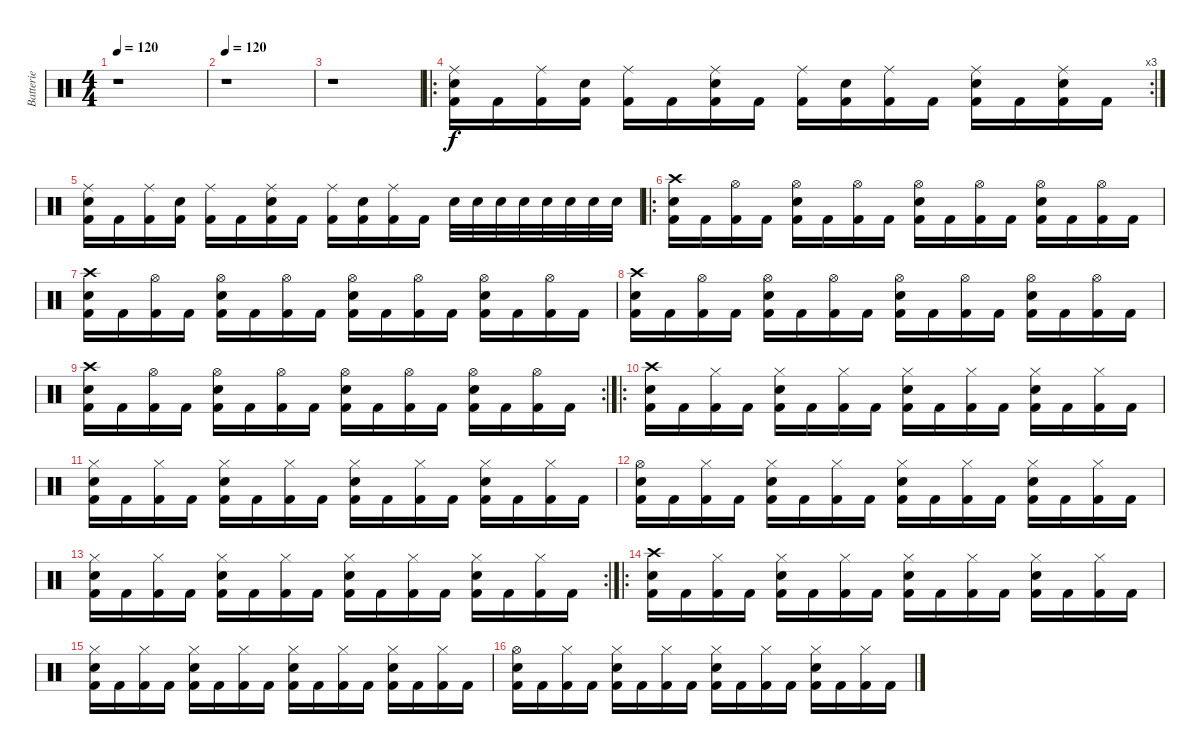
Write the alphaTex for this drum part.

\track ("Batterie" "Batterie") {instrument percussion}
\staff {score}
\articulation defaults
\ts (4 4)
\tempo 120
\clef neutral
\ks c
r.1{dy f} |
\tempo 120
r.1 |
r.1 |
\ro
\rc 3
("Ride (middle)" "Electric Snare (hit)" "Kick (hit) 2").16 "Kick (hit) 2".16 ("Ride (middle)" "Kick (hit) 2").16 ("Electric Snare (hit)" "Kick (hit) 2").16 ("Ride (middle)" "Kick (hit) 2").16 "Kick (hit) 2".16 ("Ride (middle)" "Electric Snare (hit)" "Kick (hit) 2").16 "Kick (hit) 2".16 ("Ride (middle)" "Kick (hit) 2").16 ("Electric Snare (hit)" "Kick (hit) 2").16 ("Ride (middle)" "Kick (hit) 2").16 "Kick (hit) 2".16 ("Ride (middle)" "Electric Snare (hit)" "Kick (hit) 2").16 "Kick (hit) 2".16 ("Ride (middle)" "Electric Snare (hit)" "Kick (hit) 2").16 "Kick (hit) 2".16 |
("Ride (middle)" "Electric Snare (hit)" "Kick (hit) 2").16 "Kick (hit) 2".16 ("Ride (middle)" "Kick (hit) 2").16 ("Electric Snare (hit)" "Kick (hit) 2").16 ("Ride (middle)" "Kick (hit) 2").16 "Kick (hit) 2".16 ("Ride (middle)" "Electric Snare (hit)" "Kick (hit) 2").16 "Kick (hit) 2".16 ("Ride (middle)" "Kick (hit) 2").16 ("Electric Snare (hit)" "Kick (hit) 2").16 ("Ride (middle)" "Kick (hit) 2").16 "Kick (hit) 2".16 "Electric Snare (hit)".32 "Electric Snare (hit)".32 "Electric Snare (hit)".32 "Electric Snare (hit)".32 "Electric Snare (hit)".32 "Electric Snare (hit)".32 "Electric Snare (hit)".32 "Electric Snare (hit)".32 |
\ro
("Crash high (hit)" "Electric Snare (hit)" "Kick (hit) 2").16 "Kick (hit) 2".16 ("Hi-Hat (open)" "Kick (hit) 2").16 "Kick (hit) 2".16 ("Hi-Hat (open)" "Electric Snare (hit)" "Kick (hit) 2").16 "Kick (hit) 2".16 ("Hi-Hat (open)" "Kick (hit) 2").16 "Kick (hit) 2".16 ("Hi-Hat (open)" "Electric Snare (hit)" "Kick (hit) 2").16 "Kick (hit) 2".16 ("Hi-Hat (open)" "Kick (hit) 2").16 "Kick (hit) 2".16 ("Hi-Hat (open)" "Electric Snare (hit)" "Kick (hit) 2").16 "Kick (hit) 2".16 ("Hi-Hat (open)" "Kick (hit) 2").16 "Kick (hit) 2".16 |
("Crash high (hit)" "Electric Snare (hit)" "Kick (hit) 2").16 "Kick (hit) 2".16 ("Hi-Hat (open)" "Kick (hit) 2").16 "Kick (hit) 2".16 ("Hi-Hat (open)" "Electric Snare (hit)" "Kick (hit) 2").16 "Kick (hit) 2".16 ("Hi-Hat (open)" "Kick (hit) 2").16 "Kick (hit) 2".16 ("Hi-Hat (open)" "Electric Snare (hit)" "Kick (hit) 2").16 "Kick (hit) 2".16 ("Hi-Hat (open)" "Kick (hit) 2").16 "Kick (hit) 2".16 ("Hi-Hat (open)" "Electric Snare (hit)" "Kick (hit) 2").16 "Kick (hit) 2".16 ("Hi-Hat (open)" "Kick (hit) 2").16 "Kick (hit) 2".16 |
("Crash high (hit)" "Electric Snare (hit)" "Kick (hit) 2").16 "Kick (hit) 2".16 ("Hi-Hat (open)" "Kick (hit) 2").16 "Kick (hit) 2".16 ("Hi-Hat (open)" "Electric Snare (hit)" "Kick (hit) 2").16 "Kick (hit) 2".16 ("Hi-Hat (open)" "Kick (hit) 2").16 "Kick (hit) 2".16 ("Hi-Hat (open)" "Electric Snare (hit)" "Kick (hit) 2").16 "Kick (hit) 2".16 ("Hi-Hat (open)" "Kick (hit) 2").16 "Kick (hit) 2".16 ("Hi-Hat (open)" "Electric Snare (hit)" "Kick (hit) 2").16 "Kick (hit) 2".16 ("Hi-Hat (open)" "Kick (hit) 2").16 "Kick (hit) 2".16 |
\rc 2
("Crash high (hit)" "Electric Snare (hit)" "Kick (hit) 2").16 "Kick (hit) 2".16 ("Hi-Hat (open)" "Kick (hit) 2").16 "Kick (hit) 2".16 ("Hi-Hat (open)" "Electric Snare (hit)" "Kick (hit) 2").16 "Kick (hit) 2".16 ("Hi-Hat (open)" "Kick (hit) 2").16 "Kick (hit) 2".16 ("Hi-Hat (open)" "Electric Snare (hit)" "Kick (hit) 2").16 "Kick (hit) 2".16 ("Hi-Hat (open)" "Kick (hit) 2").16 "Kick (hit) 2".16 ("Hi-Hat (open)" "Electric Snare (hit)" "Kick (hit) 2").16 "Kick (hit) 2".16 ("Hi-Hat (open)" "Kick (hit) 2").16 "Kick (hit) 2".16 |
\ro
("Crash high (hit)" "Electric Snare (hit)" "Kick (hit) 2").16 "Kick (hit) 2".16 ("Hi-Hat (closed)" "Kick (hit) 2").16 "Kick (hit) 2".16 ("Hi-Hat (closed)" "Electric Snare (hit)" "Kick (hit) 2").16 "Kick (hit) 2".16 ("Hi-Hat (closed)" "Kick (hit) 2").16 "Kick (hit) 2".16 ("Hi-Hat (closed)" "Electric Snare (hit)" "Kick (hit) 2").16 "Kick (hit) 2".16 ("Hi-Hat (closed)" "Kick (hit) 2").16 "Kick (hit) 2".16 ("Hi-Hat (closed)" "Electric Snare (hit)" "Kick (hit) 2").16 "Kick (hit) 2".16 ("Hi-Hat (closed)" "Kick (hit) 2").16 "Kick (hit) 2".16 |
("Hi-Hat (closed)" "Electric Snare (hit)" "Kick (hit) 2").16 "Kick (hit) 2".16 ("Hi-Hat (closed)" "Kick (hit) 2").16 "Kick (hit) 2".16 ("Hi-Hat (closed)" "Electric Snare (hit)" "Kick (hit) 2").16 "Kick (hit) 2".16 ("Hi-Hat (closed)" "Kick (hit) 2").16 "Kick (hit) 2".16 ("Hi-Hat (closed)" "Electric Snare (hit)" "Kick (hit) 2").16 "Kick (hit) 2".16 ("Hi-Hat (closed)" "Kick (hit) 2").16 "Kick (hit) 2".16 ("Hi-Hat (closed)" "Electric Snare (hit)" "Kick (hit) 2").16 "Kick (hit) 2".16 ("Hi-Hat (closed)" "Kick (hit) 2").16 "Kick (hit) 2".16 |
("Hi-Hat (open)" "Electric Snare (hit)" "Kick (hit) 2").16 "Kick (hit) 2".16 ("Hi-Hat (closed)" "Kick (hit) 2").16 "Kick (hit) 2".16 ("Hi-Hat (closed)" "Electric Snare (hit)" "Kick (hit) 2").16 "Kick (hit) 2".16 ("Hi-Hat (closed)" "Kick (hit) 2").16 "Kick (hit) 2".16 ("Hi-Hat (closed)" "Electric Snare (hit)" "Kick (hit) 2").16 "Kick (hit) 2".16 ("Hi-Hat (closed)" "Kick (hit) 2").16 "Kick (hit) 2".16 ("Hi-Hat (closed)" "Electric Snare (hit)" "Kick (hit) 2").16 "Kick (hit) 2".16 ("Hi-Hat (closed)" "Kick (hit) 2").16 "Kick (hit) 2".16 |
\rc 2
("Hi-Hat (closed)" "Electric Snare (hit)" "Kick (hit) 2").16 "Kick (hit) 2".16 ("Hi-Hat (closed)" "Kick (hit) 2").16 "Kick (hit) 2".16 ("Hi-Hat (closed)" "Electric Snare (hit)" "Kick (hit) 2").16 "Kick (hit) 2".16 ("Hi-Hat (closed)" "Kick (hit) 2").16 "Kick (hit) 2".16 ("Hi-Hat (closed)" "Electric Snare (hit)" "Kick (hit) 2").16 "Kick (hit) 2".16 ("Hi-Hat (closed)" "Kick (hit) 2").16 "Kick (hit) 2".16 ("Hi-Hat (closed)" "Electric Snare (hit)" "Kick (hit) 2").16 "Kick (hit) 2".16 ("Hi-Hat (closed)" "Kick (hit) 2").16 "Kick (hit) 2".16 |
\ro
("Crash high (hit)" "Electric Snare (hit)" "Kick (hit) 2").16 "Kick (hit) 2".16 ("Hi-Hat (closed)" "Kick (hit) 2").16 "Kick (hit) 2".16 ("Hi-Hat (closed)" "Electric Snare (hit)" "Kick (hit) 2").16 "Kick (hit) 2".16 ("Hi-Hat (closed)" "Kick (hit) 2").16 "Kick (hit) 2".16 ("Hi-Hat (closed)" "Electric Snare (hit)" "Kick (hit) 2").16 "Kick (hit) 2".16 ("Hi-Hat (closed)" "Kick (hit) 2").16 "Kick (hit) 2".16 ("Hi-Hat (closed)" "Electric Snare (hit)" "Kick (hit) 2").16 "Kick (hit) 2".16 ("Hi-Hat (closed)" "Kick (hit) 2").16 "Kick (hit) 2".16 |
("Hi-Hat (closed)" "Electric Snare (hit)" "Kick (hit) 2").16 "Kick (hit) 2".16 ("Hi-Hat (closed)" "Kick (hit) 2").16 "Kick (hit) 2".16 ("Hi-Hat (closed)" "Electric Snare (hit)" "Kick (hit) 2").16 "Kick (hit) 2".16 ("Hi-Hat (closed)" "Kick (hit) 2").16 "Kick (hit) 2".16 ("Hi-Hat (closed)" "Electric Snare (hit)" "Kick (hit) 2").16 "Kick (hit) 2".16 ("Hi-Hat (closed)" "Kick (hit) 2").16 "Kick (hit) 2".16 ("Hi-Hat (closed)" "Electric Snare (hit)" "Kick (hit) 2").16 "Kick (hit) 2".16 ("Hi-Hat (closed)" "Kick (hit) 2").16 "Kick (hit) 2".16 |
("Hi-Hat (open)" "Electric Snare (hit)" "Kick (hit) 2").16 "Kick (hit) 2".16 ("Hi-Hat (closed)" "Kick (hit) 2").16 "Kick (hit) 2".16 ("Hi-Hat (closed)" "Electric Snare (hit)" "Kick (hit) 2").16 "Kick (hit) 2".16 ("Hi-Hat (closed)" "Kick (hit) 2").16 "Kick (hit) 2".16 ("Hi-Hat (closed)" "Electric Snare (hit)" "Kick (hit) 2").16 "Kick (hit) 2".16 ("Hi-Hat (closed)" "Kick (hit) 2").16 "Kick (hit) 2".16 ("Hi-Hat (closed)" "Electric Snare (hit)" "Kick (hit) 2").16 "Kick (hit) 2".16 ("Hi-Hat (closed)" "Kick (hit) 2").16 "Kick (hit) 2".16
